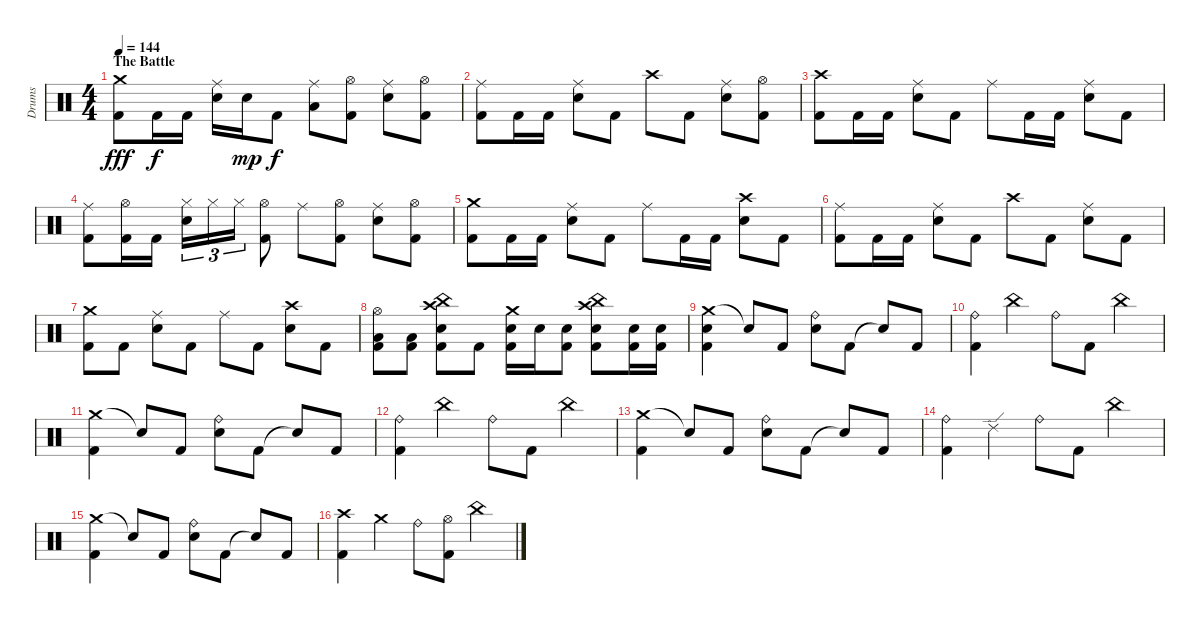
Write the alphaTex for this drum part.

\track ("Drums" "Drums") {instrument percussion}
\staff {score}
\articulation defaults
\ts (4 4)
\section ("" "The Battle")
\tempo 144
\clef neutral
\ks c
("Crash medium (hit)" "Kick (hit) 2").8{dy fff} "Kick (hit) 2".16{dy f} "Kick (hit) 2".16 ("Ride (middle)" "Snare (hit) 2").16 "Snare (hit) 2".16{dy mp} "Kick (hit) 2".8{dy f} ("Ride (middle)" "Low Tom (hit)").8 ("Hi-Hat (open)" "Kick (hit) 2").8 ("Ride (middle)" "Snare (hit) 2").8 ("Hi-Hat (open)" "Kick (hit) 2").8 |
("Ride (middle)" "Kick (hit) 2").8 "Kick (hit) 2".16 "Kick (hit) 2".16 ("Ride (middle)" "Snare (hit) 2").8 "Kick (hit) 2".8 "Crash high (hit)".8 "Kick (hit) 2".8 ("Ride (middle)" "Snare (hit) 2").8 ("Hi-Hat (open)" "Kick (hit) 2").8 |
("Crash high (hit)" "Kick (hit) 2").8 "Kick (hit) 2".16 "Kick (hit) 2".16 ("Ride (middle)" "Snare (hit) 2").8 "Kick (hit) 2".8 "Ride (middle)".8 "Kick (hit) 2".16 "Kick (hit) 2".16 ("Ride (middle)" "Snare (hit) 2").8 "Kick (hit) 2".8 |
("Ride (middle)" "Kick (hit) 2").8 ("Hi-Hat (open)" "Kick (hit) 2").16 "Kick (hit) 2".16 ("Hi-Hat (closed)" "Snare (hit) 2").16{tu (3 2)} "Hi-Hat (closed)".16{tu (3 2)} "Hi-Hat (closed)".16{tu (3 2)} ("Hi-Hat (open)" "Kick (hit) 2").8 "Ride (middle)".8 ("Hi-Hat (open)" "Kick (hit) 2").8 ("Ride (middle)" "Snare (hit) 2").8 ("Hi-Hat (open)" "Kick (hit) 2").8 |
("Crash medium (hit)" "Kick (hit) 2").8 "Kick (hit) 2".16 "Kick (hit) 2".16 ("Ride (middle)" "Snare (hit) 2").8 "Kick (hit) 2".8 "Ride (middle)".8 "Kick (hit) 2".16 "Kick (hit) 2".16 ("Crash high (hit)" "Snare (hit) 2").8 "Kick (hit) 2".8 |
("Ride (middle)" "Kick (hit) 2").8 "Kick (hit) 2".16 "Kick (hit) 2".16 ("Ride (middle)" "Snare (hit) 2").8 "Kick (hit) 2".8 "Crash high (hit)".8 "Kick (hit) 2".8 ("Ride (middle)" "Snare (hit) 2").8 "Kick (hit) 2".8 |
("Crash medium (hit)" "Kick (hit) 2").8 "Kick (hit) 2".8 ("Ride (middle)" "Snare (hit) 2").8 "Kick (hit) 2".8 "Ride (middle)".8 "Kick (hit) 2".8 ("Crash high (hit)" "Snare (hit) 2").8 "Kick (hit) 2".8 |
("Hi-Hat (open)" "Low Tom (hit)" "Kick (hit) 2").8 ("Low Tom (hit)" "Kick (hit) 2").8 ("Crash high (hit)" "China (hit)" "Snare (hit) 2" "Kick (hit) 2").8 "Kick (hit) 2".8 ("Crash medium (hit)" "Snare (hit) 2" "Kick (hit) 2").16 "Snare (hit) 2".16 ("Snare (hit) 2" "Kick (hit) 2").8 ("Crash high (hit)" "China (hit)" "Snare (hit) 2" "Kick (hit) 2").8 ("Snare (hit) 2" "Kick (hit) 2").16 ("Snare (hit) 2" "Kick (hit) 2").16 |
("Crash medium (hit)" "Snare (hit) 2" "Kick (hit) 2").4 "Snare (hit)"{t}.8 "Kick (hit) 2".8 ("Ride (bell)" "Snare (hit) 2").8 "Kick (hit) 2".8 "Snare (hit)"{t}.8 "Kick (hit) 2".8 |
("Ride (bell)" "Kick (hit) 2").4 "China (hit)".4 "Ride (bell)".8 "Kick (hit) 2".8 "China (hit)".4 |
("Crash medium (hit)" "Kick (hit) 2").4 "Snare (hit)"{t}.8 "Kick (hit) 2".8 ("Ride (bell)" "Snare (hit) 2").8 "Kick (hit) 2".8 "Snare (hit)"{t}.8 "Kick (hit) 2".8 |
("Ride (bell)" "Kick (hit) 2").4 "China (hit)".4 "Ride (bell)".8 "Kick (hit) 2".8 "China (hit)".4 |
("Crash medium (hit)" "Kick (hit) 2").4 "Snare (hit)"{t}.8 "Kick (hit) 2".8 ("Ride (bell)" "Snare (hit) 2").8 "Kick (hit) 2".8 "Snare (hit)"{t}.8 "Kick (hit) 2".8 |
("Ride (bell)" "Kick (hit) 2").4 "Ride (edge) 2".4 "Ride (bell)".8 "Kick (hit) 2".8 "China (hit)".4 |
("Crash medium (hit)" "Kick (hit) 2").4 "Snare (hit)"{t}.8 "Kick (hit) 2".8 ("Ride (bell)" "Snare (hit) 2").8 "Kick (hit) 2".8 "Snare (hit)"{t}.8 "Kick (hit) 2".8 |
("Crash high (hit)" "Kick (hit) 2").4 "Crash medium (hit)".4 "Ride (bell)".8 ("Hi-Hat (open)" "Kick (hit) 2").8 "China (hit)".4
